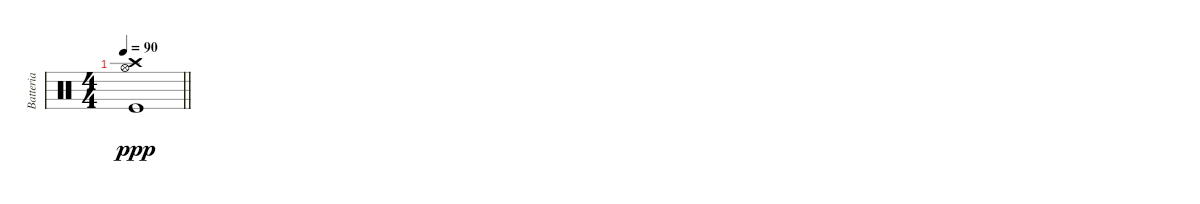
\track ("Batteria" "Batteria") {instrument percussion}
\staff {score}
\articulation defaults
\ts (4 4)
\tempo 90
\clef neutral
\barLineRight lightlight
\ks c
("Hi-Hat (open)" "Kick (hit)" "Crash high (hit)").1{dy ppp}
